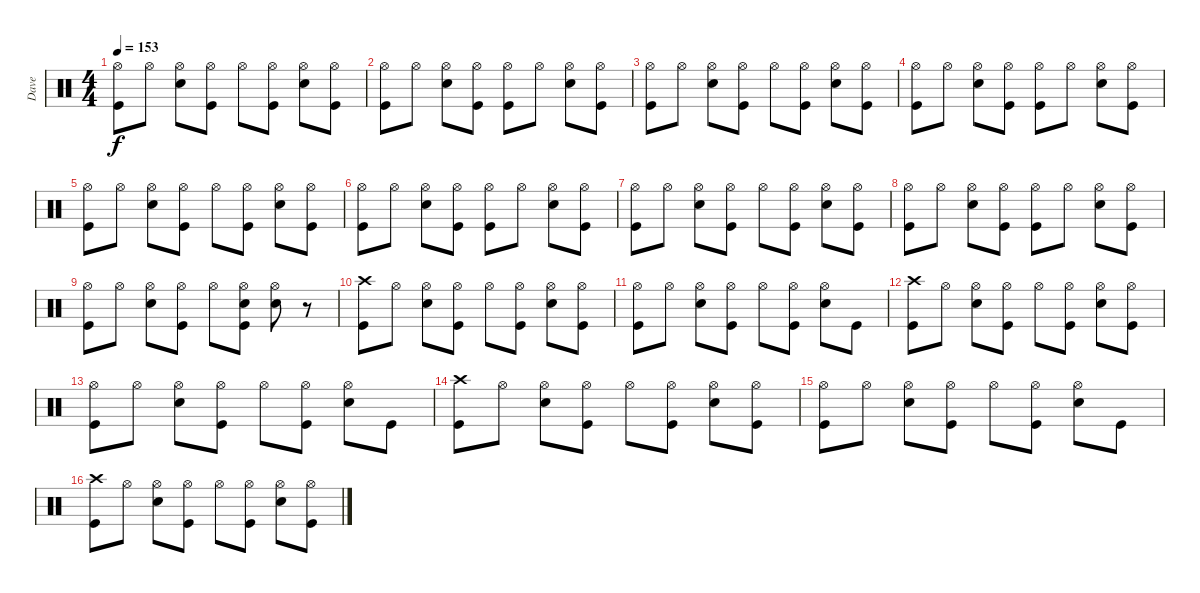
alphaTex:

\track ("Dave" "Dave") {solo instrument percussion}
\staff {score}
\articulation defaults
\ts (4 4)
\tempo 153
\clef neutral
\ks c
("Hi-Hat (open)" "Kick (hit)").8{dy f} "Hi-Hat (open)".8 ("Hi-Hat (open)" "Snare (hit) 2").8 ("Hi-Hat (open)" "Kick (hit)").8 "Hi-Hat (open)".8 ("Hi-Hat (open)" "Kick (hit)").8 ("Hi-Hat (open)" "Snare (hit) 2").8 ("Hi-Hat (open)" "Kick (hit)").8 |
("Hi-Hat (open)" "Kick (hit)").8 "Hi-Hat (open)".8 ("Hi-Hat (open)" "Snare (hit) 2").8 ("Hi-Hat (open)" "Kick (hit)").8 ("Hi-Hat (open)" "Kick (hit)").8 "Hi-Hat (open)".8 ("Hi-Hat (open)" "Snare (hit) 2").8 ("Hi-Hat (open)" "Kick (hit)").8 |
("Hi-Hat (open)" "Kick (hit)").8 "Hi-Hat (open)".8 ("Hi-Hat (open)" "Snare (hit) 2").8 ("Hi-Hat (open)" "Kick (hit)").8 "Hi-Hat (open)".8 ("Hi-Hat (open)" "Kick (hit)").8 ("Hi-Hat (open)" "Snare (hit) 2").8 ("Hi-Hat (open)" "Kick (hit)").8 |
("Hi-Hat (open)" "Kick (hit)").8 "Hi-Hat (open)".8 ("Hi-Hat (open)" "Snare (hit) 2").8 ("Hi-Hat (open)" "Kick (hit)").8 ("Hi-Hat (open)" "Kick (hit)").8 "Hi-Hat (open)".8 ("Hi-Hat (open)" "Snare (hit) 2").8 ("Hi-Hat (open)" "Kick (hit)").8 |
("Hi-Hat (open)" "Kick (hit)").8 "Hi-Hat (open)".8 ("Hi-Hat (open)" "Snare (hit) 2").8 ("Hi-Hat (open)" "Kick (hit)").8 "Hi-Hat (open)".8 ("Hi-Hat (open)" "Kick (hit)").8 ("Hi-Hat (open)" "Snare (hit) 2").8 ("Hi-Hat (open)" "Kick (hit)").8 |
("Hi-Hat (open)" "Kick (hit)").8 "Hi-Hat (open)".8 ("Hi-Hat (open)" "Snare (hit) 2").8 ("Hi-Hat (open)" "Kick (hit)").8 ("Hi-Hat (open)" "Kick (hit)").8 "Hi-Hat (open)".8 ("Hi-Hat (open)" "Snare (hit) 2").8 ("Hi-Hat (open)" "Kick (hit)").8 |
("Hi-Hat (open)" "Kick (hit)").8 "Hi-Hat (open)".8 ("Hi-Hat (open)" "Snare (hit) 2").8 ("Hi-Hat (open)" "Kick (hit)").8 "Hi-Hat (open)".8 ("Hi-Hat (open)" "Kick (hit)").8 ("Hi-Hat (open)" "Snare (hit) 2").8 ("Hi-Hat (open)" "Kick (hit)").8 |
("Hi-Hat (open)" "Kick (hit)").8 "Hi-Hat (open)".8 ("Hi-Hat (open)" "Snare (hit) 2").8 ("Hi-Hat (open)" "Kick (hit)").8 ("Hi-Hat (open)" "Kick (hit)").8 "Hi-Hat (open)".8 ("Hi-Hat (open)" "Snare (hit) 2").8 ("Hi-Hat (open)" "Kick (hit)").8 |
("Hi-Hat (open)" "Kick (hit)").8 "Hi-Hat (open)".8 ("Hi-Hat (open)" "Snare (hit) 2").8 ("Hi-Hat (open)" "Kick (hit)").8 "Hi-Hat (open)".8 ("Hi-Hat (open)" "Snare (hit) 2" "Kick (hit)").8 ("Hi-Hat (open)" "Snare (hit) 2").8 r.8 |
("Crash high (hit)" "Kick (hit)").8 "Hi-Hat (open)".8 ("Hi-Hat (open)" "Snare (hit) 2").8 ("Hi-Hat (open)" "Kick (hit)").8 "Hi-Hat (open)".8 ("Hi-Hat (open)" "Kick (hit)").8 ("Hi-Hat (open)" "Snare (hit) 2").8 ("Hi-Hat (open)" "Kick (hit)").8 |
("Hi-Hat (open)" "Kick (hit)").8 "Hi-Hat (open)".8 ("Hi-Hat (open)" "Snare (hit) 2").8 ("Hi-Hat (open)" "Kick (hit)").8 "Hi-Hat (open)".8 ("Hi-Hat (open)" "Kick (hit)").8 ("Hi-Hat (open)" "Snare (hit) 2").8 "Kick (hit)".8 |
("Crash high (hit)" "Kick (hit)").8 "Hi-Hat (open)".8 ("Hi-Hat (open)" "Snare (hit) 2").8 ("Hi-Hat (open)" "Kick (hit)").8 "Hi-Hat (open)".8 ("Hi-Hat (open)" "Kick (hit)").8 ("Hi-Hat (open)" "Snare (hit) 2").8 ("Hi-Hat (open)" "Kick (hit)").8 |
("Hi-Hat (open)" "Kick (hit)").8 "Hi-Hat (open)".8 ("Hi-Hat (open)" "Snare (hit) 2").8 ("Hi-Hat (open)" "Kick (hit)").8 "Hi-Hat (open)".8 ("Hi-Hat (open)" "Kick (hit)").8 ("Hi-Hat (open)" "Snare (hit) 2").8 "Kick (hit)".8 |
("Crash high (hit)" "Kick (hit)").8 "Hi-Hat (open)".8 ("Hi-Hat (open)" "Snare (hit) 2").8 ("Hi-Hat (open)" "Kick (hit)").8 "Hi-Hat (open)".8 ("Hi-Hat (open)" "Kick (hit)").8 ("Hi-Hat (open)" "Snare (hit) 2").8 ("Hi-Hat (open)" "Kick (hit)").8 |
("Hi-Hat (open)" "Kick (hit)").8 "Hi-Hat (open)".8 ("Hi-Hat (open)" "Snare (hit) 2").8 ("Hi-Hat (open)" "Kick (hit)").8 "Hi-Hat (open)".8 ("Hi-Hat (open)" "Kick (hit)").8 ("Hi-Hat (open)" "Snare (hit) 2").8 "Kick (hit)".8 |
("Crash high (hit)" "Kick (hit)").8 "Hi-Hat (open)".8 ("Hi-Hat (open)" "Snare (hit) 2").8 ("Hi-Hat (open)" "Kick (hit)").8 "Hi-Hat (open)".8 ("Hi-Hat (open)" "Kick (hit)").8 ("Hi-Hat (open)" "Snare (hit) 2").8 ("Hi-Hat (open)" "Kick (hit)").8
